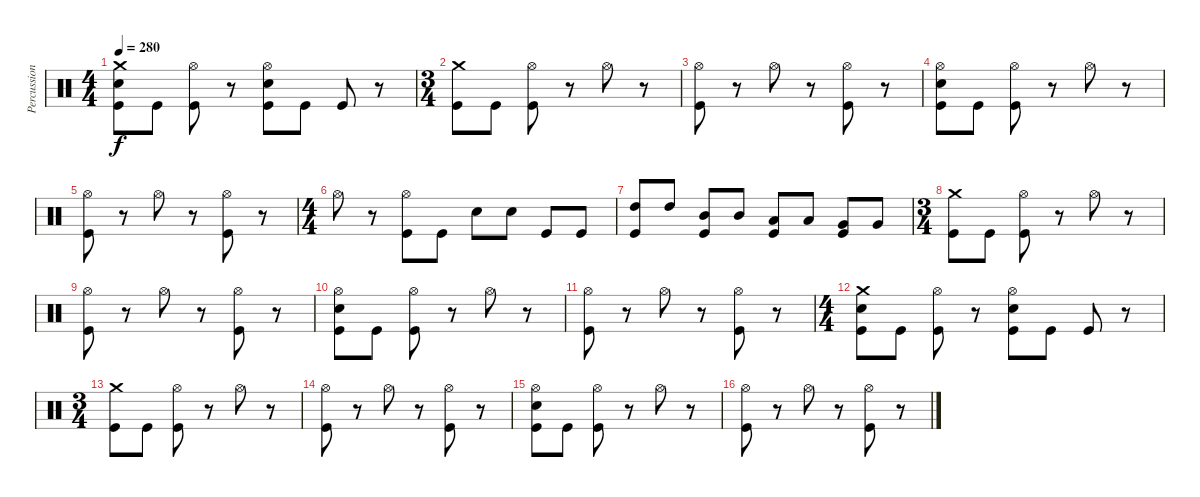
\track ("Percussion" "Percussion") {instrument percussion}
\staff {score}
\articulation defaults
\ts (4 4)
\tempo 280
\clef neutral
\ks c
("Crash medium (hit)" "Electric Snare (hit)" "Kick (hit)").8{dy f} "Kick (hit)".8 ("Hi-Hat (open)" "Kick (hit)").8 r.8 ("Hi-Hat (open)" "Electric Snare (hit)" "Kick (hit)").8 "Kick (hit)".8 "Kick (hit)".8 r.8 |
\ts (3 4)
("Crash medium (hit)" "Kick (hit)").8 "Kick (hit)".8 ("Hi-Hat (open)" "Kick (hit)").8 r.8 "Hi-Hat (open)".8 r.8 |
("Hi-Hat (open)" "Kick (hit)").8 r.8 "Hi-Hat (open)".8 r.8 ("Hi-Hat (open)" "Kick (hit)").8 r.8 |
("Hi-Hat (open)" "Electric Snare (hit)" "Kick (hit)").8 "Kick (hit)".8 ("Hi-Hat (open)" "Kick (hit)").8 r.8 "Hi-Hat (open)".8 r.8 |
("Hi-Hat (open)" "Kick (hit)").8 r.8 "Hi-Hat (open)".8 r.8 ("Hi-Hat (open)" "Kick (hit)").8 r.8 |
\ts (4 4)
"Hi-Hat (open)".8 r.8 ("Hi-Hat (open)" "Kick (hit)").8 "Kick (hit)".8 "Electric Snare (hit)".8 "Electric Snare (hit)".8 "Kick (hit)".8 "Kick (hit)".8 |
("High Tom (hit)" "Kick (hit)").8 "High Tom (hit)".8 ("Mid Tom (hit)" "Kick (hit)").8 "Mid Tom (hit)".8 ("Low Tom (hit)" "Kick (hit)").8 "Low Tom (hit)".8 ("Very Low Tom (hit)" "Kick (hit)").8 "Very Low Tom (hit)".8 |
\ts (3 4)
("Crash medium (hit)" "Kick (hit)").8 "Kick (hit)".8 ("Hi-Hat (open)" "Kick (hit)").8 r.8 "Hi-Hat (open)".8 r.8 |
("Hi-Hat (open)" "Kick (hit)").8 r.8 "Hi-Hat (open)".8 r.8 ("Hi-Hat (open)" "Kick (hit)").8 r.8 |
("Hi-Hat (open)" "Electric Snare (hit)" "Kick (hit)").8 "Kick (hit)".8 ("Hi-Hat (open)" "Kick (hit)").8 r.8 "Hi-Hat (open)".8 r.8 |
("Hi-Hat (open)" "Kick (hit)").8 r.8 "Hi-Hat (open)".8 r.8 ("Hi-Hat (open)" "Kick (hit)").8 r.8 |
\ts (4 4)
("Crash medium (hit)" "Electric Snare (hit)" "Kick (hit)").8 "Kick (hit)".8 ("Hi-Hat (open)" "Kick (hit)").8 r.8 ("Hi-Hat (open)" "Electric Snare (hit)" "Kick (hit)").8 "Kick (hit)".8 "Kick (hit)".8 r.8 |
\ts (3 4)
("Crash medium (hit)" "Kick (hit)").8 "Kick (hit)".8 ("Hi-Hat (open)" "Kick (hit)").8 r.8 "Hi-Hat (open)".8 r.8 |
("Hi-Hat (open)" "Kick (hit)").8 r.8 "Hi-Hat (open)".8 r.8 ("Hi-Hat (open)" "Kick (hit)").8 r.8 |
("Hi-Hat (open)" "Electric Snare (hit)" "Kick (hit)").8 "Kick (hit)".8 ("Hi-Hat (open)" "Kick (hit)").8 r.8 "Hi-Hat (open)".8 r.8 |
("Hi-Hat (open)" "Kick (hit)").8 r.8 "Hi-Hat (open)".8 r.8 ("Hi-Hat (open)" "Kick (hit)").8 r.8
